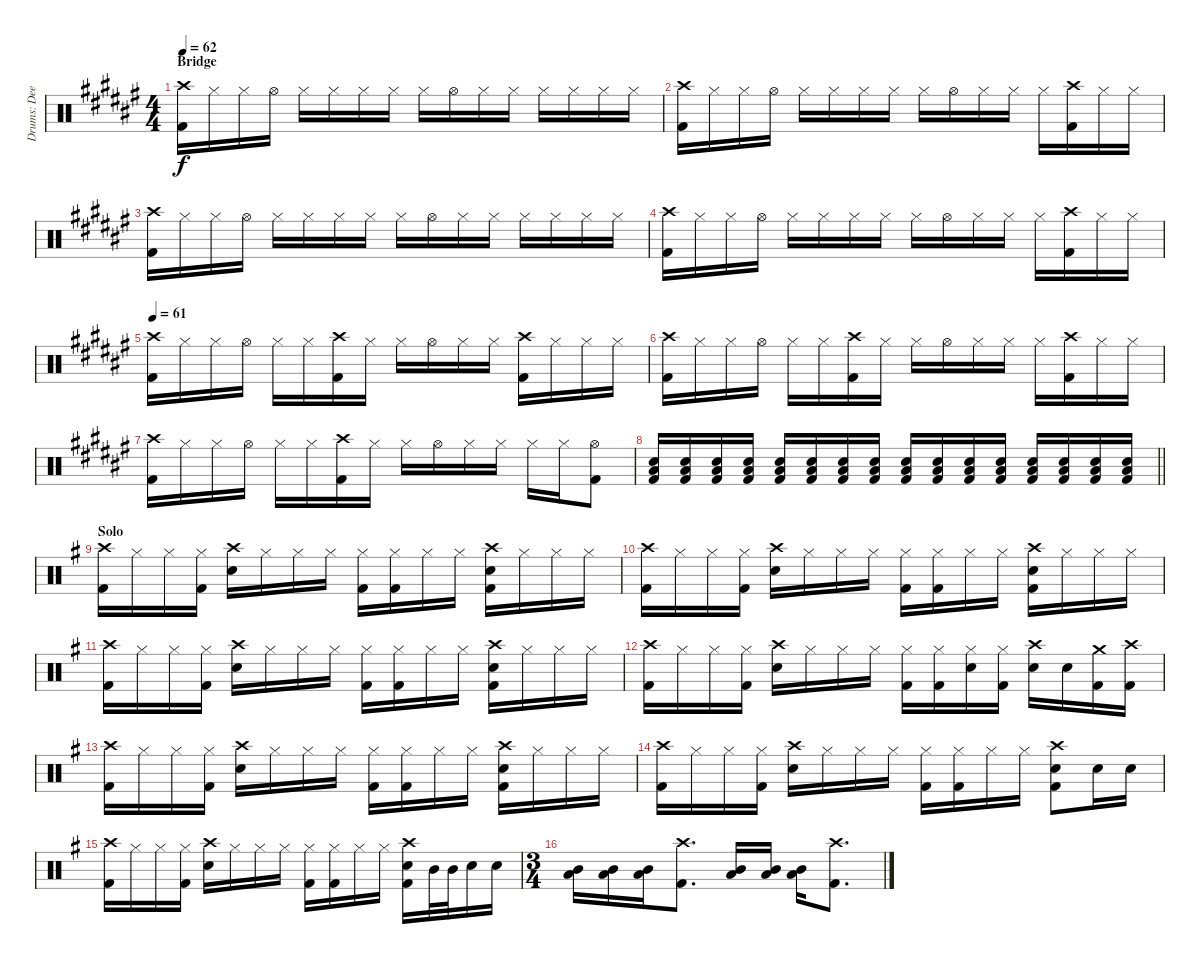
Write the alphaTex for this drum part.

\track ("Drums: Deen" "Drums: Dee") {instrument percussion}
\staff {score}
\articulation defaults
\ts (4 4)
\section ("" "Bridge")
\tempo 62
\clef neutral
\ks f#
("Crash high (hit)" "Kick (hit) 2").16{dy f} "Hi-Hat (closed)".16 "Hi-Hat (closed)".16 "Hi-Hat (open)".16 "Hi-Hat (closed)".16 "Hi-Hat (closed)".16 "Hi-Hat (closed)".16 "Hi-Hat (closed)".16 "Hi-Hat (closed)".16 "Hi-Hat (open)".16 "Hi-Hat (closed)".16 "Hi-Hat (closed)".16 "Hi-Hat (closed)".16 "Hi-Hat (closed)".16 "Hi-Hat (closed)".16 "Hi-Hat (closed)".16 |
("Crash high (hit)" "Kick (hit) 2").16 "Hi-Hat (closed)".16 "Hi-Hat (closed)".16 "Hi-Hat (open)".16 "Hi-Hat (closed)".16 "Hi-Hat (closed)".16 "Hi-Hat (closed)".16 "Hi-Hat (closed)".16 "Hi-Hat (closed)".16 "Hi-Hat (open)".16 "Hi-Hat (closed)".16 "Hi-Hat (closed)".16 "Hi-Hat (closed)".16 ("Crash high (hit)" "Kick (hit) 2").16 "Hi-Hat (closed)".16 "Hi-Hat (closed)".16 |
("Crash high (hit)" "Kick (hit) 2").16 "Hi-Hat (closed)".16 "Hi-Hat (closed)".16 "Hi-Hat (open)".16 "Hi-Hat (closed)".16 "Hi-Hat (closed)".16 "Hi-Hat (closed)".16 "Hi-Hat (closed)".16 "Hi-Hat (closed)".16 "Hi-Hat (open)".16 "Hi-Hat (closed)".16 "Hi-Hat (closed)".16 "Hi-Hat (closed)".16 "Hi-Hat (closed)".16 "Hi-Hat (closed)".16 "Hi-Hat (closed)".16 |
("Crash high (hit)" "Kick (hit) 2").16 "Hi-Hat (closed)".16 "Hi-Hat (closed)".16 "Hi-Hat (open)".16 "Hi-Hat (closed)".16 "Hi-Hat (closed)".16 "Hi-Hat (closed)".16 "Hi-Hat (closed)".16 "Hi-Hat (closed)".16 "Hi-Hat (open)".16 "Hi-Hat (closed)".16 "Hi-Hat (closed)".16 "Hi-Hat (closed)".16 ("Crash high (hit)" "Kick (hit) 2").16 "Hi-Hat (closed)".16 "Hi-Hat (closed)".16 |
\tempo 61
("Crash high (hit)" "Kick (hit) 2").16 "Hi-Hat (closed)".16 "Hi-Hat (closed)".16 "Hi-Hat (open)".16 "Hi-Hat (closed)".16 "Hi-Hat (closed)".16 ("Crash high (hit)" "Kick (hit) 2").16 "Hi-Hat (closed)".16 "Hi-Hat (closed)".16 "Hi-Hat (open)".16 "Hi-Hat (closed)".16 "Hi-Hat (closed)".16 ("Crash high (hit)" "Kick (hit) 2").16 "Hi-Hat (closed)".16 "Hi-Hat (closed)".16 "Hi-Hat (closed)".16 |
("Crash high (hit)" "Kick (hit) 2").16 "Hi-Hat (closed)".16 "Hi-Hat (closed)".16 "Hi-Hat (open)".16 "Hi-Hat (closed)".16 "Hi-Hat (closed)".16 ("Crash high (hit)" "Kick (hit) 2").16 "Hi-Hat (closed)".16 "Hi-Hat (closed)".16 "Hi-Hat (open)".16 "Hi-Hat (closed)".16 "Hi-Hat (closed)".16 "Hi-Hat (closed)".16 ("Crash high (hit)" "Kick (hit) 2").16 "Hi-Hat (closed)".16 "Hi-Hat (closed)".16 |
("Crash high (hit)" "Kick (hit) 2").16 "Hi-Hat (closed)".16 "Hi-Hat (closed)".16 "Hi-Hat (open)".16 "Hi-Hat (closed)".16 "Hi-Hat (closed)".16 ("Crash high (hit)" "Kick (hit) 2").16 "Hi-Hat (closed)".16 "Hi-Hat (closed)".16 "Hi-Hat (open)".16 "Hi-Hat (closed)".16 "Hi-Hat (closed)".16 "Hi-Hat (closed)".16 "Hi-Hat (closed)".16 ("Hi-Hat (open)" "Kick (hit) 2").8 |
\barLineRight lightlight
("Electric Snare (hit)" "Low Tom (hit)" "Kick (hit) 2").16{volume 3} ("Electric Snare (hit)" "Low Tom (hit)" "Kick (hit) 2").16{volume 13} ("Electric Snare (hit)" "Low Tom (hit)" "Kick (hit) 2").16 ("Electric Snare (hit)" "Low Tom (hit)" "Kick (hit) 2").16 ("Electric Snare (hit)" "Low Tom (hit)" "Kick (hit) 2").16 ("Electric Snare (hit)" "Low Tom (hit)" "Kick (hit) 2").16 ("Electric Snare (hit)" "Low Tom (hit)" "Kick (hit) 2").16 ("Electric Snare (hit)" "Low Tom (hit)" "Kick (hit) 2").16 ("Electric Snare (hit)" "Low Tom (hit)" "Kick (hit) 2").16 ("Electric Snare (hit)" "Low Tom (hit)" "Kick (hit) 2").16 ("Electric Snare (hit)" "Low Tom (hit)" "Kick (hit) 2").16 ("Electric Snare (hit)" "Low Tom (hit)" "Kick (hit) 2").16 ("Electric Snare (hit)" "Low Tom (hit)" "Kick (hit) 2").16 ("Electric Snare (hit)" "Low Tom (hit)" "Kick (hit) 2").16 ("Electric Snare (hit)" "Low Tom (hit)" "Kick (hit) 2").16 ("Electric Snare (hit)" "Low Tom (hit)" "Kick (hit) 2").16 |
\section ("" "Solo")
\ks g
("Crash high (hit)" "Kick (hit) 2").16 "Hi-Hat (closed)".16 "Hi-Hat (closed)".16 ("Hi-Hat (closed)" "Kick (hit) 2").16 ("Crash high (hit)" "Electric Snare (hit)").16 "Hi-Hat (closed)".16 "Hi-Hat (closed)".16 "Hi-Hat (closed)".16 ("Hi-Hat (closed)" "Kick (hit) 2").16 ("Hi-Hat (closed)" "Kick (hit) 2").16 "Hi-Hat (closed)".16 "Hi-Hat (closed)".16 ("Crash high (hit)" "Electric Snare (hit)" "Kick (hit) 2").16 "Hi-Hat (closed)".16 "Hi-Hat (closed)".16 "Hi-Hat (closed)".16 |
("Crash high (hit)" "Kick (hit) 2").16 "Hi-Hat (closed)".16 "Hi-Hat (closed)".16 ("Hi-Hat (closed)" "Kick (hit) 2").16 ("Crash high (hit)" "Electric Snare (hit)").16 "Hi-Hat (closed)".16 "Hi-Hat (closed)".16 "Hi-Hat (closed)".16 ("Hi-Hat (closed)" "Kick (hit) 2").16 ("Hi-Hat (closed)" "Kick (hit) 2").16 "Hi-Hat (closed)".16 "Hi-Hat (closed)".16 ("Crash high (hit)" "Electric Snare (hit)" "Kick (hit) 2").16 "Hi-Hat (closed)".16 "Hi-Hat (closed)".16 "Hi-Hat (closed)".16 |
("Crash high (hit)" "Kick (hit) 2").16 "Hi-Hat (closed)".16 "Hi-Hat (closed)".16 ("Hi-Hat (closed)" "Kick (hit) 2").16 ("Crash high (hit)" "Electric Snare (hit)").16 "Hi-Hat (closed)".16 "Hi-Hat (closed)".16 "Hi-Hat (closed)".16 ("Hi-Hat (closed)" "Kick (hit) 2").16 ("Hi-Hat (closed)" "Kick (hit) 2").16 "Hi-Hat (closed)".16 "Hi-Hat (closed)".16 ("Crash high (hit)" "Electric Snare (hit)" "Kick (hit) 2").16 "Hi-Hat (closed)".16 "Hi-Hat (closed)".16 "Hi-Hat (closed)".16 |
("Crash high (hit)" "Kick (hit) 2").16 "Hi-Hat (closed)".16 "Hi-Hat (closed)".16 ("Hi-Hat (closed)" "Kick (hit) 2").16 ("Crash high (hit)" "Electric Snare (hit)").16 "Hi-Hat (closed)".16 "Hi-Hat (closed)".16 "Hi-Hat (closed)".16 ("Hi-Hat (closed)" "Kick (hit) 2").16 ("Hi-Hat (closed)" "Kick (hit) 2").16 ("Hi-Hat (closed)" "Electric Snare (hit)").16 ("Hi-Hat (closed)" "Kick (hit) 2").16 ("Crash high (hit)" "Electric Snare (hit)").16 "Electric Snare (hit)".16 ("Crash medium (hit)" "Kick (hit) 2").16 ("Crash high (hit)" "Kick (hit) 2").16 |
("Crash high (hit)" "Kick (hit) 2").16 "Hi-Hat (closed)".16 "Hi-Hat (closed)".16 ("Hi-Hat (closed)" "Kick (hit) 2").16 ("Crash high (hit)" "Electric Snare (hit)").16 "Hi-Hat (closed)".16 "Hi-Hat (closed)".16 "Hi-Hat (closed)".16 ("Hi-Hat (closed)" "Kick (hit) 2").16 ("Hi-Hat (closed)" "Kick (hit) 2").16 "Hi-Hat (closed)".16 "Hi-Hat (closed)".16 ("Crash high (hit)" "Electric Snare (hit)" "Kick (hit) 2").16 "Hi-Hat (closed)".16 "Hi-Hat (closed)".16 "Hi-Hat (closed)".16 |
("Crash high (hit)" "Kick (hit) 2").16 "Hi-Hat (closed)".16 "Hi-Hat (closed)".16 ("Hi-Hat (closed)" "Kick (hit) 2").16 ("Crash high (hit)" "Electric Snare (hit)").16 "Hi-Hat (closed)".16 "Hi-Hat (closed)".16 "Hi-Hat (closed)".16 ("Hi-Hat (closed)" "Kick (hit) 2").16 ("Hi-Hat (closed)" "Kick (hit) 2").16 "Hi-Hat (closed)".16 "Hi-Hat (closed)".16 ("Crash high (hit)" "Electric Snare (hit)" "Kick (hit) 2").8 "Electric Snare (hit)".16 "Electric Snare (hit)".16 |
("Crash high (hit)" "Kick (hit) 2").16 "Hi-Hat (closed)".16 "Hi-Hat (closed)".16 ("Hi-Hat (closed)" "Kick (hit) 2").16 ("Crash high (hit)" "Electric Snare (hit)").16 "Hi-Hat (closed)".16 "Hi-Hat (closed)".16 "Hi-Hat (closed)".16 ("Hi-Hat (closed)" "Kick (hit) 2").16 ("Hi-Hat (closed)" "Kick (hit) 2").16 "Hi-Hat (closed)".16 "Hi-Hat (closed)".16 ("Crash high (hit)" "Electric Snare (hit)" "Kick (hit) 2").16 "Mid Tom (hit)".32 "Mid Tom (hit)".32 "Electric Snare (hit)".16 "Electric Snare (hit)".16 |
\ts (3 4)
("Low Tom (hit)" "Mid Tom (hit)").16 ("Low Tom (hit)" "Mid Tom (hit)").16 ("Low Tom (hit)" "Mid Tom (hit)").16 ("Crash high (hit)" "Kick (hit) 2").8{d} ("Low Tom (hit)" "Mid Tom (hit)").16 ("Low Tom (hit)" "Mid Tom (hit)").16 ("Low Tom (hit)" "Mid Tom (hit)").16 ("Crash high (hit)" "Kick (hit) 2").8{d}
